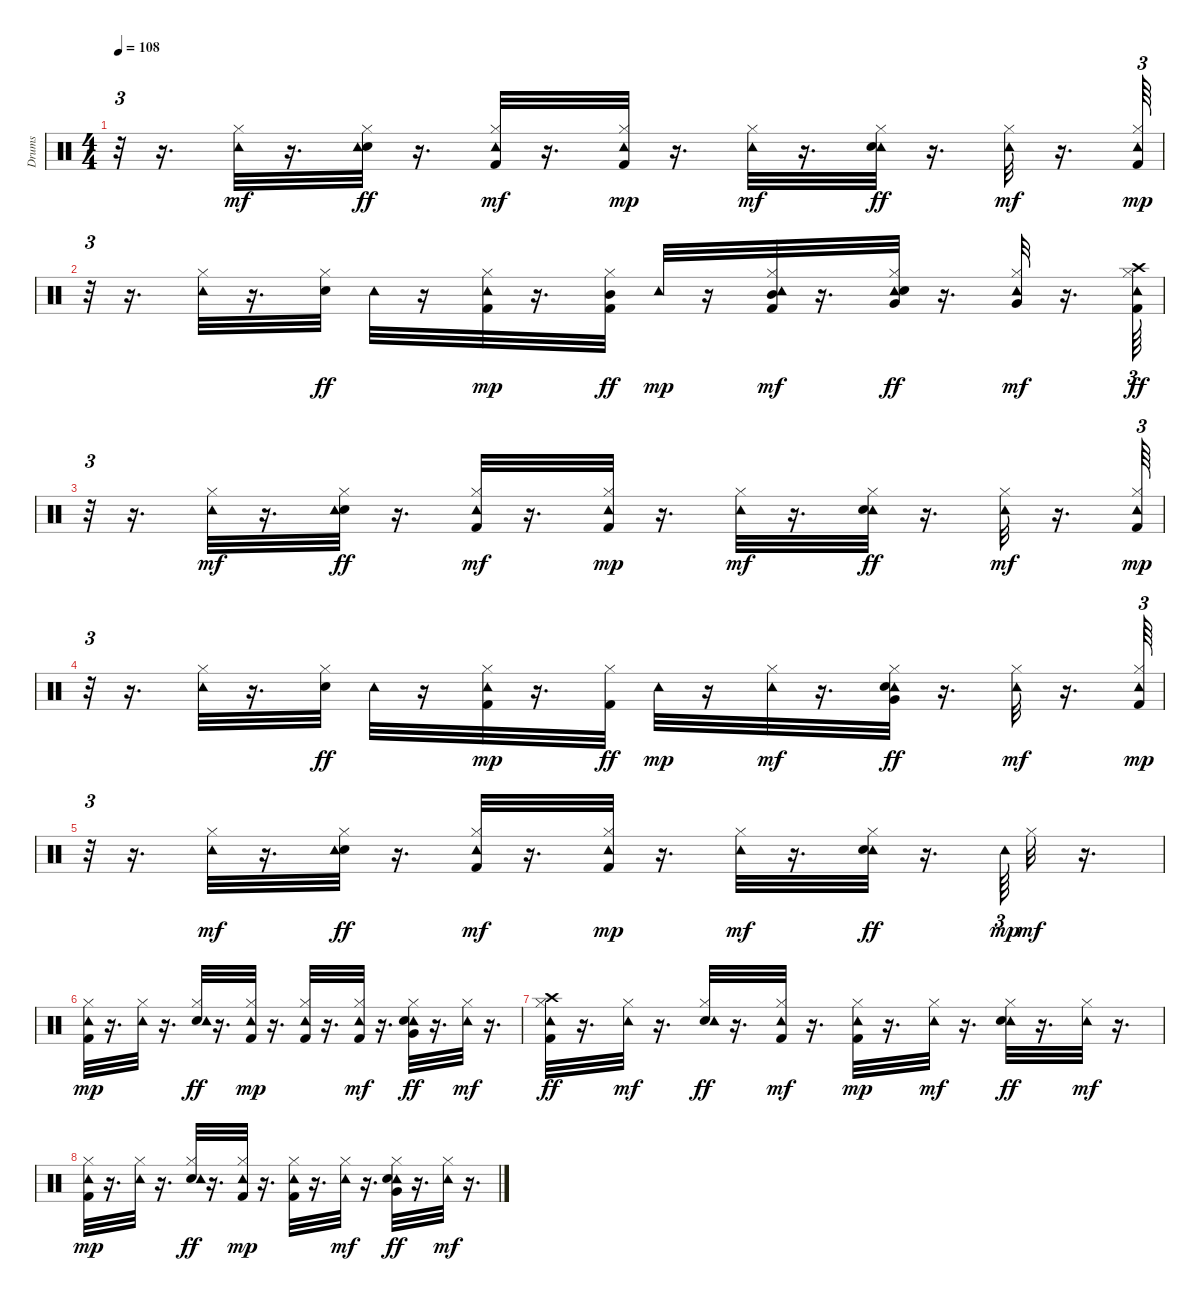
\track ("Drums               " "Drums     ") {instrument percussion}
\staff {score}
\articulation defaults
\ts (4 4)
\tempo 108
\clef neutral
\ks c
r.32{tu (3 2) dy ff} r.16{d} ("Tambourine (hit)" "Hi-Hat (closed)").32{dy mf} r.16{d} ("Snare (hit) 2" "Hi-Hat (closed)" "Tambourine (hit)").32{dy ff} r.16{d} ("Tambourine (hit)" "Kick (hit) 2" "Hi-Hat (closed)").32{dy mf} r.16{d} ("Kick (hit) 2" "Hi-Hat (closed)" "Tambourine (hit)").32{dy mp} r.16{d} ("Tambourine (hit)" "Hi-Hat (closed)").32{dy mf} r.16{d} ("Tambourine (hit)" "Snare (hit) 2" "Hi-Hat (closed)").32{dy ff} r.16{d} ("Tambourine (hit)" "Hi-Hat (closed)").32{dy mf} r.16{d} ("Kick (hit) 2" "Hi-Hat (closed)" "Tambourine (hit)").64{tu (3 2) dy mp} |
r.32{tu (3 2)} r.16{d} ("Hi-Hat (closed)" "Tambourine (hit)").32 r.16{d} ("Hi-Hat (closed)" "Snare (hit) 2").32{dy ff} "Tambourine (hit)".32 r.16 ("Kick (hit) 2" "Hi-Hat (closed)" "Tambourine (hit)").32{dy mp} r.16{d} ("Kick (hit) 2" "Mid Tom (hit)" "Hi-Hat (closed)").32{dy ff} "Tambourine (hit)".32{dy mp} r.16 ("Tambourine (hit)" "Kick (hit) 2" "Hi-Hat (closed)" "Mid Tom (hit)").32{dy mf} r.16{d} ("Tambourine (hit)" "Snare (hit) 2" "Very Low Tom (hit)" "Hi-Hat (closed)").32{dy ff} r.16{d} ("Tambourine (hit)" "Very Low Tom (hit)" "Hi-Hat (closed)").32{dy mf} r.16{d} ("Kick (hit) 2" "Crash high (hit)" "Tambourine (hit)" "Hi-Hat (closed)").64{tu (3 2) dy ff} |
r.32{tu (3 2)} r.16{d} ("Tambourine (hit)" "Hi-Hat (closed)").32{dy mf} r.16{d} ("Snare (hit) 2" "Hi-Hat (closed)" "Tambourine (hit)").32{dy ff} r.16{d} ("Tambourine (hit)" "Kick (hit) 2" "Hi-Hat (closed)").32{dy mf} r.16{d} ("Kick (hit) 2" "Hi-Hat (closed)" "Tambourine (hit)").32{dy mp} r.16{d} ("Tambourine (hit)" "Hi-Hat (closed)").32{dy mf} r.16{d} ("Tambourine (hit)" "Snare (hit) 2" "Hi-Hat (closed)").32{dy ff} r.16{d} ("Tambourine (hit)" "Hi-Hat (closed)").32{dy mf} r.16{d} ("Kick (hit) 2" "Hi-Hat (closed)" "Tambourine (hit)").64{tu (3 2) dy mp} |
r.32{tu (3 2)} r.16{d} ("Hi-Hat (closed)" "Tambourine (hit)").32 r.16{d} ("Snare (hit) 2" "Hi-Hat (closed)").32{dy ff} "Tambourine (hit)".32 r.16 ("Kick (hit) 2" "Hi-Hat (closed)" "Tambourine (hit)").32{dy mp} r.16{d} ("Kick (hit) 2" "Hi-Hat (closed)").32{dy ff} "Tambourine (hit)".32{dy mp} r.16 ("Tambourine (hit)" "Hi-Hat (closed)").32{dy mf} r.16{d} ("Tambourine (hit)" "Snare (hit) 2" "Very Low Tom (hit)" "Hi-Hat (closed)").32{dy ff} r.16{d} ("Tambourine (hit)" "Hi-Hat (closed)").32{dy mf} r.16{d} ("Hi-Hat (closed)" "Kick (hit) 2" "Tambourine (hit)").64{tu (3 2) dy mp} |
r.32{tu (3 2)} r.16{d} ("Tambourine (hit)" "Hi-Hat (closed)").32{dy mf} r.16{d} ("Snare (hit) 2" "Hi-Hat (closed)" "Tambourine (hit)").32{dy ff} r.16{d} ("Tambourine (hit)" "Kick (hit) 2" "Hi-Hat (closed)").32{dy mf} r.16{d} ("Kick (hit) 2" "Hi-Hat (closed)" "Tambourine (hit)").32{dy mp} r.16{d} ("Tambourine (hit)" "Hi-Hat (closed)").32{dy mf} r.16{d} ("Tambourine (hit)" "Snare (hit) 2" "Hi-Hat (closed)").32{dy ff} r.16{d} "Tambourine (hit)".64{tu (3 2) dy mp} "Hi-Hat (closed)".32{dy mf} r.16{d} |
("Kick (hit) 2" "Hi-Hat (closed)" "Tambourine (hit)").32{dy mp} r.16{d} ("Hi-Hat (closed)" "Tambourine (hit)").32 r.16{d} ("Snare (hit) 2" "Hi-Hat (closed)" "Tambourine (hit)").32{dy ff} r.16{d} ("Hi-Hat (closed)" "Kick (hit) 2" "Tambourine (hit)").32{dy mp} r.16{d} ("Kick (hit) 2" "Hi-Hat (closed)" "Tambourine (hit)").32 r.16{d} ("Tambourine (hit)" "Kick (hit) 2" "Hi-Hat (closed)").32{dy mf} r.16{d} ("Tambourine (hit)" "Snare (hit) 2" "Hi-Hat (closed)" "Very Low Tom (hit)").32{dy ff} r.16{d} ("Tambourine (hit)" "Hi-Hat (closed)").32{dy mf} r.16{d} |
("Kick (hit) 2" "Crash high (hit)" "Tambourine (hit)" "Hi-Hat (closed)").32{dy ff} r.16{d} ("Tambourine (hit)" "Hi-Hat (closed)").32{dy mf} r.16{d} ("Snare (hit) 2" "Hi-Hat (closed)" "Tambourine (hit)").32{dy ff} r.16{d} ("Tambourine (hit)" "Kick (hit) 2" "Hi-Hat (closed)").32{dy mf} r.16{d} ("Kick (hit) 2" "Hi-Hat (closed)" "Tambourine (hit)").32{dy mp} r.16{d} ("Tambourine (hit)" "Hi-Hat (closed)").32{dy mf} r.16{d} ("Tambourine (hit)" "Hi-Hat (closed)" "Snare (hit) 2").32{dy ff} r.16{d} ("Tambourine (hit)" "Hi-Hat (closed)").32{dy mf} r.16{d} |
("Kick (hit) 2" "Hi-Hat (closed)" "Tambourine (hit)").32{dy mp} r.16{d} ("Hi-Hat (closed)" "Tambourine (hit)").32 r.16{d} ("Snare (hit) 2" "Hi-Hat (closed)" "Tambourine (hit)").32{dy ff} r.16{d} ("Kick (hit) 2" "Hi-Hat (closed)" "Tambourine (hit)").32{dy mp} r.16{d} ("Kick (hit) 2" "Hi-Hat (closed)" "Tambourine (hit)").32 r.16{d} ("Tambourine (hit)" "Hi-Hat (closed)").32{dy mf} r.16{d} ("Tambourine (hit)" "Snare (hit) 2" "Hi-Hat (closed)" "Very Low Tom (hit)").32{dy ff} r.16{d} ("Tambourine (hit)" "Hi-Hat (closed)").32{dy mf} r.16{d}
